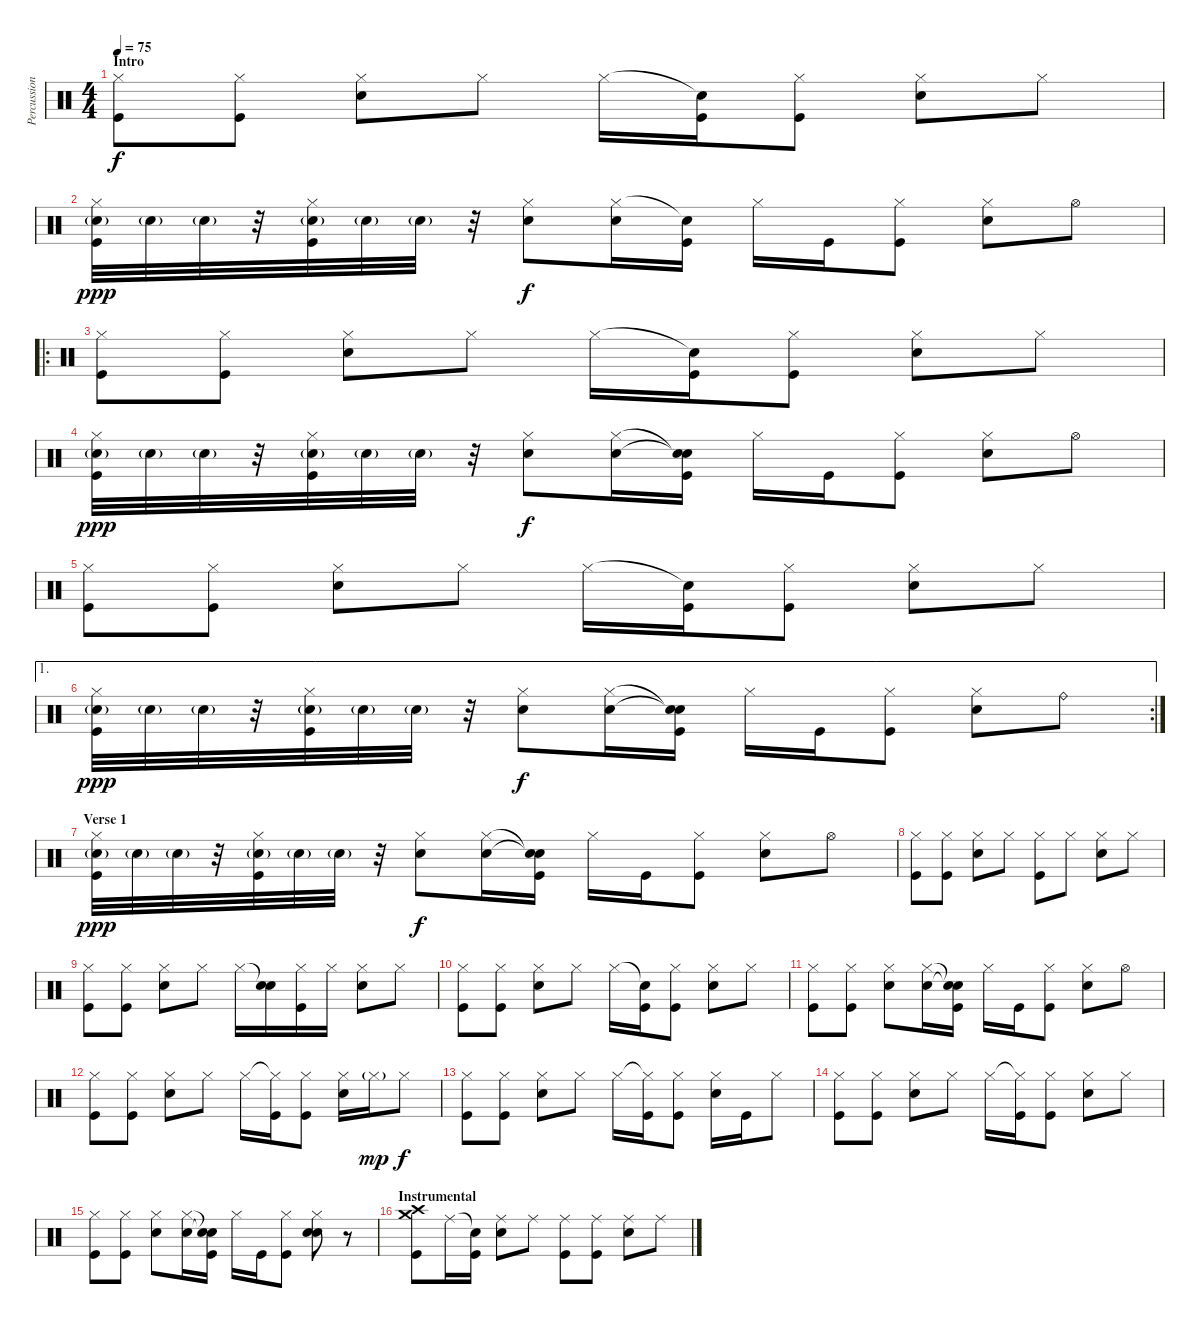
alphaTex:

\track ("Percussion" "Percussion") {instrument percussion}
\staff {score}
\articulation defaults
\ts (4 4)
\section ("" "Intro")
\tempo 75
\clef neutral
\ks c
("Hi-Hat (closed)" "Kick (hit)").8{dy f} ("Hi-Hat (closed)" "Kick (hit)").8 ("Hi-Hat (closed)" "Snare (hit) 2").8 "Hi-Hat (closed)".8 "Hi-Hat (closed)".16 ("Snare (hit)"{t} "Kick (hit)").16 ("Hi-Hat (closed)" "Kick (hit)").8 ("Hi-Hat (closed)" "Snare (hit) 2").8 "Hi-Hat (closed)".8 |
("Hi-Hat (closed)" "Snare (hit) 2"{g} "Kick (hit)").32{dy ppp} "Snare (hit) 2"{g}.32 "Snare (hit) 2"{g}.32 r.32 ("Hi-Hat (closed)" "Snare (hit) 2"{g} "Kick (hit)").32 "Snare (hit) 2"{g}.32 "Snare (hit) 2"{g}.32 r.32 ("Hi-Hat (closed)" "Snare (hit) 2").8{dy f} ("Hi-Hat (closed)" "Snare (hit) 2").16 ("Snare (hit)"{t} "Kick (hit)").16 "Hi-Hat (closed)".16 "Kick (hit)".16 ("Hi-Hat (closed)" "Kick (hit)").8 ("Hi-Hat (closed)" "Snare (hit) 2").8 "Hi-Hat (open)".8 |
\ro
("Hi-Hat (closed)" "Kick (hit)").8 ("Hi-Hat (closed)" "Kick (hit)").8 ("Hi-Hat (closed)" "Snare (hit) 2").8 "Hi-Hat (closed)".8 "Hi-Hat (closed)".16 ("Snare (hit)"{t} "Kick (hit)").16 ("Hi-Hat (closed)" "Kick (hit)").8 ("Hi-Hat (closed)" "Snare (hit) 2").8 "Hi-Hat (closed)".8 |
("Hi-Hat (closed)" "Snare (hit) 2"{g} "Kick (hit)").32{dy ppp} "Snare (hit) 2"{g}.32 "Snare (hit) 2"{g}.32 r.32 ("Hi-Hat (closed)" "Snare (hit) 2"{g} "Kick (hit)").32 "Snare (hit) 2"{g}.32 "Snare (hit) 2"{g}.32 r.32 ("Hi-Hat (closed)" "Snare (hit) 2").8{dy f} ("Hi-Hat (closed)" "Snare (hit) 2").16 ("Snare (hit)"{t} "Snare (hit)"{t} "Kick (hit)").16 "Hi-Hat (closed)".16 "Kick (hit)".16 ("Hi-Hat (closed)" "Kick (hit)").8 ("Hi-Hat (closed)" "Snare (hit) 2").8 "Hi-Hat (open)".8 |
("Hi-Hat (closed)" "Kick (hit)").8 ("Hi-Hat (closed)" "Kick (hit)").8 ("Hi-Hat (closed)" "Snare (hit) 2").8 "Hi-Hat (closed)".8 "Hi-Hat (closed)".16 ("Snare (hit)"{t} "Kick (hit)").16 ("Hi-Hat (closed)" "Kick (hit)").8 ("Hi-Hat (closed)" "Snare (hit) 2").8 "Hi-Hat (closed)".8 |
\ae 1
\rc 2
("Hi-Hat (closed)" "Snare (hit) 2"{g} "Kick (hit)").32{dy ppp} "Snare (hit) 2"{g}.32 "Snare (hit) 2"{g}.32 r.32 ("Hi-Hat (closed)" "Snare (hit) 2"{g} "Kick (hit)").32 "Snare (hit) 2"{g}.32 "Snare (hit) 2"{g}.32 r.32 ("Hi-Hat (closed)" "Snare (hit) 2").8{dy f} ("Hi-Hat (closed)" "Snare (hit) 2").16 ("Snare (hit)"{t} "Snare (hit)"{t} "Kick (hit)").16 "Hi-Hat (closed)".16 "Kick (hit)".16 ("Hi-Hat (closed)" "Kick (hit)").8 ("Hi-Hat (closed)" "Snare (hit) 2").8 "Ride (bell)".8 |
\section ("" "Verse 1")
("Hi-Hat (closed)" "Snare (hit) 2"{g} "Kick (hit)").32{dy ppp} "Snare (hit) 2"{g}.32 "Snare (hit) 2"{g}.32 r.32 ("Hi-Hat (closed)" "Snare (hit) 2"{g} "Kick (hit)").32 "Snare (hit) 2"{g}.32 "Snare (hit) 2"{g}.32 r.32 ("Hi-Hat (closed)" "Snare (hit) 2").8{dy f} ("Hi-Hat (closed)" "Snare (hit) 2").16 ("Snare (hit)"{t} "Snare (hit)"{t} "Kick (hit)").16 "Hi-Hat (closed)".16 "Kick (hit)".16 ("Hi-Hat (closed)" "Kick (hit)").8 ("Hi-Hat (closed)" "Snare (hit) 2").8 "Hi-Hat (open)".8 |
("Hi-Hat (closed)" "Kick (hit)").8 ("Hi-Hat (closed)" "Kick (hit)").8 ("Hi-Hat (closed)" "Snare (hit) 2").8 "Hi-Hat (closed)".8 ("Hi-Hat (closed)" "Kick (hit)").8 "Hi-Hat (closed)".8 ("Hi-Hat (closed)" "Snare (hit) 2").8 "Hi-Hat (closed)".8 |
("Hi-Hat (closed)" "Kick (hit)").8 ("Hi-Hat (closed)" "Kick (hit)").8 ("Hi-Hat (closed)" "Snare (hit) 2").8 "Hi-Hat (closed)".8 "Hi-Hat (closed)".16 ("Snare (hit)"{t} "Snare (hit) 2").16 ("Hi-Hat (closed)" "Kick (hit)").16 "Hi-Hat (closed)".16 ("Hi-Hat (closed)" "Snare (hit) 2").8 "Hi-Hat (closed)".8 |
("Hi-Hat (closed)" "Kick (hit)").8 ("Hi-Hat (closed)" "Kick (hit)").8 ("Hi-Hat (closed)" "Snare (hit) 2").8 "Hi-Hat (closed)".8 "Hi-Hat (closed)".16 ("Snare (hit)"{t} "Kick (hit)").16 ("Hi-Hat (closed)" "Kick (hit)").8 ("Hi-Hat (closed)" "Snare (hit) 2").8 "Hi-Hat (closed)".8 |
("Hi-Hat (closed)" "Kick (hit)").8 ("Hi-Hat (closed)" "Kick (hit)").8 ("Hi-Hat (closed)" "Snare (hit) 2").8 ("Hi-Hat (closed)" "Snare (hit) 2").16 ("Snare (hit)"{t} "Snare (hit)"{t} "Kick (hit)").16 "Hi-Hat (closed)".16 "Kick (hit)".16 ("Hi-Hat (closed)" "Kick (hit)").8 ("Hi-Hat (closed)" "Snare (hit) 2").8 "Hi-Hat (open)".8 |
("Hi-Hat (closed)" "Kick (hit)").8 ("Hi-Hat (closed)" "Kick (hit)").8 ("Hi-Hat (closed)" "Snare (hit) 2").8 "Hi-Hat (closed)".8 "Hi-Hat (closed)".16 ("Hi-Hat (closed)"{t} "Kick (hit)").16 ("Hi-Hat (closed)" "Kick (hit)").8 ("Hi-Hat (closed)" "Snare (hit) 2").16 "Hi-Hat (closed)"{g}.16{dy mp} "Hi-Hat (closed)".8{dy f} |
("Hi-Hat (closed)" "Kick (hit)").8 ("Hi-Hat (closed)" "Kick (hit)").8 ("Hi-Hat (closed)" "Snare (hit) 2").8 "Hi-Hat (closed)".8 "Hi-Hat (closed)".16 ("Hi-Hat (closed)"{t} "Kick (hit)").16 ("Hi-Hat (closed)" "Kick (hit)").8 ("Hi-Hat (closed)" "Snare (hit) 2").16 "Kick (hit)".16 "Hi-Hat (closed)".8 |
("Hi-Hat (closed)" "Kick (hit)").8 ("Hi-Hat (closed)" "Kick (hit)").8 ("Hi-Hat (closed)" "Snare (hit) 2").8 "Hi-Hat (closed)".8 "Hi-Hat (closed)".16 ("Hi-Hat (closed)"{t} "Kick (hit)").16 ("Hi-Hat (closed)" "Kick (hit)").8 ("Hi-Hat (closed)" "Snare (hit) 2").8 "Hi-Hat (closed)".8 |
("Hi-Hat (closed)" "Kick (hit)").8 ("Hi-Hat (closed)" "Kick (hit)").8 ("Hi-Hat (closed)" "Snare (hit) 2").8 ("Hi-Hat (closed)" "Snare (hit) 2").16 ("Snare (hit)"{t} "Snare (hit)"{t} "Kick (hit)").16 "Hi-Hat (closed)".16 "Kick (hit)".16 ("Hi-Hat (closed)" "Kick (hit)").8 ("Hi-Hat (closed)" "Snare (hit) 2" "Snare (hit) 2").8 r.8 |
\section ("" "Instrumental")
("Crash high (hit)" "Crash medium (hit)" "Kick (hit)").8 "Ride (middle)".16 ("Snare (hit)"{t} "Kick (hit)").16 ("Ride (middle)" "Snare (hit) 2").8 "Ride (middle)".8 ("Ride (middle)" "Kick (hit)").8 ("Ride (middle)" "Kick (hit)").8 ("Ride (middle)" "Snare (hit) 2").8 "Ride (middle)".8
